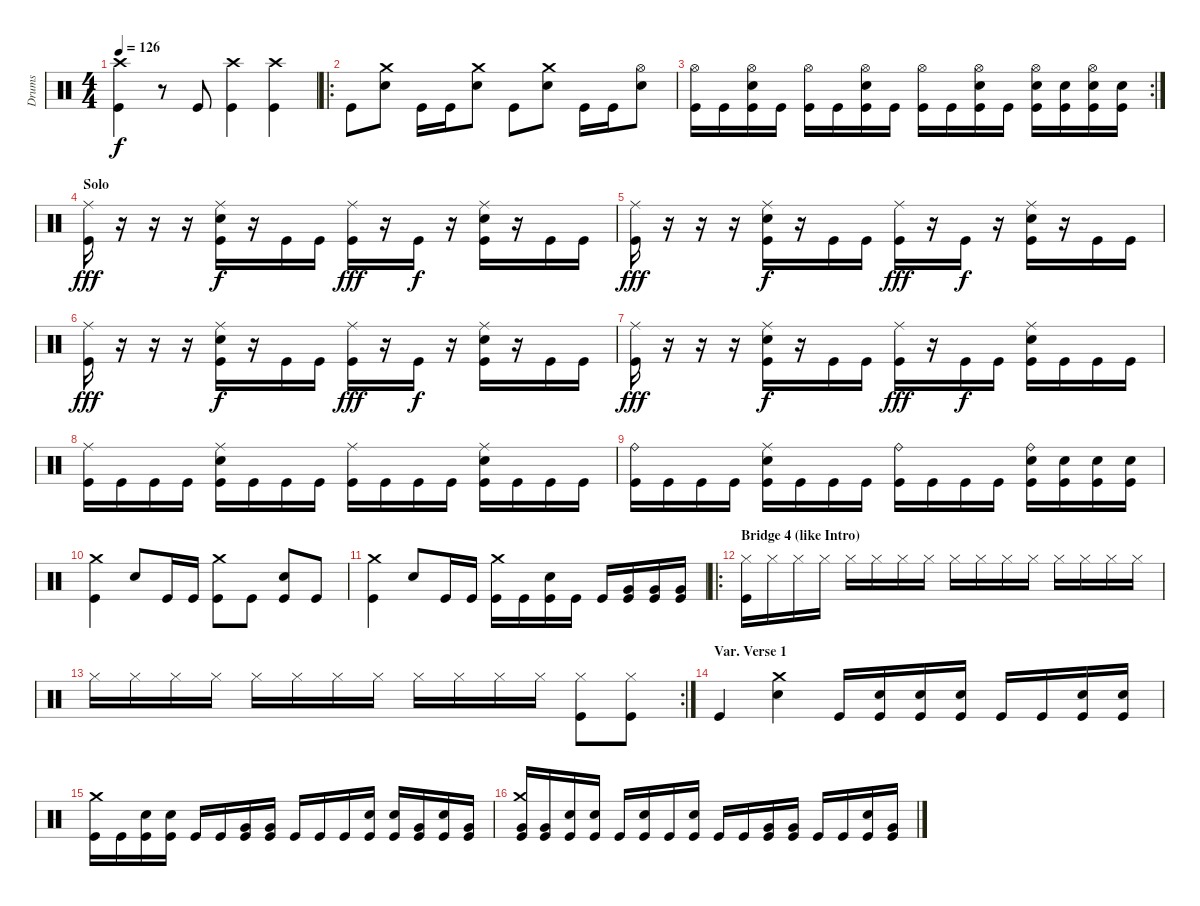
\track ("Drums" "Drums") {instrument percussion}
\staff {score}
\articulation defaults
\ts (4 4)
\tempo 126
\clef neutral
\ks c
("Crash high (hit)" "Kick (hit)").4{dy f} r.8 "Kick (hit)".8 ("Crash high (hit)" "Kick (hit)").4 ("Crash high (hit)" "Kick (hit)").4 |
\ro "Kick (hit)".8
("Crash medium (hit)" "Electric Snare (hit)").8 "Kick (hit)".16 "Kick (hit)".16 ("Crash medium (hit)" "Electric Snare (hit)").8 "Kick (hit)".8 ("Crash medium (hit)" "Electric Snare (hit)").8 "Kick (hit)".16 "Kick (hit)".16 ("Hi-Hat (open)" "Electric Snare (hit)").8 |
\rc 2
("Hi-Hat (open)" "Kick (hit)").16 "Kick (hit)".16 ("Hi-Hat (open)" "Electric Snare (hit)" "Kick (hit)").16 "Kick (hit)".16 ("Hi-Hat (open)" "Kick (hit)").16 "Kick (hit)".16 ("Hi-Hat (open)" "Electric Snare (hit)" "Kick (hit)").16 "Kick (hit)".16 ("Hi-Hat (open)" "Kick (hit)").16 "Kick (hit)".16 ("Hi-Hat (open)" "Electric Snare (hit)" "Kick (hit)").16 "Kick (hit)".16 ("Hi-Hat (open)" "Electric Snare (hit)" "Kick (hit)").16 ("Electric Snare (hit)" "Kick (hit)").16 ("Hi-Hat (open)" "Electric Snare (hit)" "Kick (hit)").16 ("Electric Snare (hit)" "Kick (hit)").16 |
\section ("" "Solo")
("Ride (middle)" "Kick (hit)").16{dy fff} r.16 r.16 r.16 ("Ride (middle)" "Electric Snare (hit)" "Kick (hit)").16{dy f} r.16 "Kick (hit)".16 "Kick (hit)".16 ("Ride (middle)" "Kick (hit)").16{dy fff} r.16 "Kick (hit)".16{dy f} r.16 ("Ride (middle)" "Electric Snare (hit)" "Kick (hit)").16 r.16 "Kick (hit)".16 "Kick (hit)".16 |
("Ride (middle)" "Kick (hit)").16{dy fff} r.16 r.16 r.16 ("Ride (middle)" "Electric Snare (hit)" "Kick (hit)").16{dy f} r.16 "Kick (hit)".16 "Kick (hit)".16 ("Ride (middle)" "Kick (hit)").16{dy fff} r.16 "Kick (hit)".16{dy f} r.16 ("Ride (middle)" "Electric Snare (hit)" "Kick (hit)").16 r.16 "Kick (hit)".16 "Kick (hit)".16 |
("Ride (middle)" "Kick (hit)").16{dy fff} r.16 r.16 r.16 ("Ride (middle)" "Electric Snare (hit)" "Kick (hit)").16{dy f} r.16 "Kick (hit)".16 "Kick (hit)".16 ("Ride (middle)" "Kick (hit)").16{dy fff} r.16 "Kick (hit)".16{dy f} r.16 ("Ride (middle)" "Electric Snare (hit)" "Kick (hit)").16 r.16 "Kick (hit)".16 "Kick (hit)".16 |
("Ride (middle)" "Kick (hit)").16{dy fff} r.16 r.16 r.16 ("Ride (middle)" "Electric Snare (hit)" "Kick (hit)").16{dy f} r.16 "Kick (hit)".16 "Kick (hit)".16 ("Ride (middle)" "Kick (hit)").16{dy fff} r.16 "Kick (hit)".16{dy f} "Kick (hit)".16 ("Ride (middle)" "Electric Snare (hit)" "Kick (hit)").16 "Kick (hit)".16 "Kick (hit)".16 "Kick (hit)".16 |
("Ride (middle)" "Kick (hit)").16 "Kick (hit)".16 "Kick (hit)".16 "Kick (hit)".16 ("Ride (middle)" "Electric Snare (hit)" "Kick (hit)").16 "Kick (hit)".16 "Kick (hit)".16 "Kick (hit)".16 ("Ride (middle)" "Kick (hit)").16 "Kick (hit)".16 "Kick (hit)".16 "Kick (hit)".16 ("Ride (middle)" "Electric Snare (hit)" "Kick (hit)").16 "Kick (hit)".16 "Kick (hit)".16 "Kick (hit)".16 |
("Ride (bell)" "Kick (hit)").16 "Kick (hit)".16 "Kick (hit)".16 "Kick (hit)".16 ("Ride (middle)" "Electric Snare (hit)" "Kick (hit)").16 "Kick (hit)".16 "Kick (hit)".16 "Kick (hit)".16 ("Ride (bell)" "Kick (hit)").16 "Kick (hit)".16 "Kick (hit)".16 "Kick (hit)".16 ("Ride (bell)" "Electric Snare (hit)" "Kick (hit)").16 ("Electric Snare (hit)" "Kick (hit)").16 ("Electric Snare (hit)" "Kick (hit)").16 ("Electric Snare (hit)" "Kick (hit)").16 |
("Crash medium (hit)" "Kick (hit)").4 "Electric Snare (hit)".8 "Kick (hit)".16 "Kick (hit)".16 ("Crash medium (hit)" "Kick (hit)").8 "Kick (hit)".8 ("Electric Snare (hit)" "Kick (hit)").8 "Kick (hit)".8 |
("Crash medium (hit)" "Kick (hit)").4 "Electric Snare (hit)".8 "Kick (hit)".16 "Kick (hit)".16 ("Crash medium (hit)" "Kick (hit)").16 "Kick (hit)".16 ("Electric Snare (hit)" "Kick (hit)").16 "Kick (hit)".16 "Kick (hit)".16 ("Very Low Tom (hit)" "Kick (hit)").16 ("Very Low Tom (hit)" "Kick (hit)").16 ("Very Low Tom (hit)" "Kick (hit)").16 |
\ro
\section ("" "Bridge 4 (like Intro)")
("Hi-Hat (closed)" "Kick (hit)").16 "Hi-Hat (closed)".16 "Hi-Hat (closed)".16 "Hi-Hat (closed)".16 "Hi-Hat (closed)".16 "Hi-Hat (closed)".16 "Hi-Hat (closed)".16 "Hi-Hat (closed)".16 "Hi-Hat (closed)".16 "Hi-Hat (closed)".16 "Hi-Hat (closed)".16 "Hi-Hat (closed)".16 "Hi-Hat (closed)".16 "Hi-Hat (closed)".16 "Hi-Hat (closed)".16 "Hi-Hat (closed)".16 |
\rc 2 "Hi-Hat (closed)".16 "Hi-Hat (closed)".16 "Hi-Hat (closed)".16 "Hi-Hat (closed)".16 "Hi-Hat (closed)".16 "Hi-Hat (closed)".16 "Hi-Hat (closed)".16 "Hi-Hat (closed)".16 "Hi-Hat (closed)".16 "Hi-Hat (closed)".16 "Hi-Hat (closed)".16 "Hi-Hat (closed)".16
("Hi-Hat (closed)" "Kick (hit)").8 ("Hi-Hat (closed)" "Kick (hit)").8 |
\section ("" "Var. Verse 1")
"Kick (hit)".4 ("Crash medium (hit)" "Electric Snare (hit)").4 "Kick (hit)".16 ("Electric Snare (hit)" "Kick (hit)").16 ("Electric Snare (hit)" "Kick (hit)").16 ("Electric Snare (hit)" "Kick (hit)").16 "Kick (hit)".16 "Kick (hit)".16 ("Electric Snare (hit)" "Kick (hit)").16 ("Electric Snare (hit)" "Kick (hit)").16 |
("Crash medium (hit)" "Kick (hit)").16 "Kick (hit)".16 ("Electric Snare (hit)" "Kick (hit)").16 ("Electric Snare (hit)" "Kick (hit)").16 "Kick (hit)".16 "Kick (hit)".16 ("Very Low Tom (hit)" "Kick (hit)").16 ("Very Low Tom (hit)" "Kick (hit)").16 "Kick (hit)".16 "Kick (hit)".16 "Kick (hit)".16 ("Electric Snare (hit)" "Kick (hit)").16 ("Electric Snare (hit)" "Kick (hit)").16 ("Very Low Tom (hit)" "Kick (hit)").16 ("Electric Snare (hit)" "Kick (hit)").16 ("Very Low Tom (hit)" "Kick (hit)").16 |
("Very Low Tom (hit)" "Crash medium (hit)" "Kick (hit)").16 ("Very Low Tom (hit)" "Kick (hit)").16 ("Electric Snare (hit)" "Kick (hit)").16 ("Electric Snare (hit)" "Kick (hit)").16 "Kick (hit)".16 ("Electric Snare (hit)" "Kick (hit)").16 "Kick (hit)".16 ("Electric Snare (hit)" "Kick (hit)").16 "Kick (hit)".16 "Kick (hit)".16 ("Very Low Tom (hit)" "Kick (hit)").16 ("Very Low Tom (hit)" "Kick (hit)").16 "Kick (hit)".16 "Kick (hit)".16 ("Electric Snare (hit)" "Kick (hit)").16 ("Very Low Tom (hit)" "Kick (hit)").16
